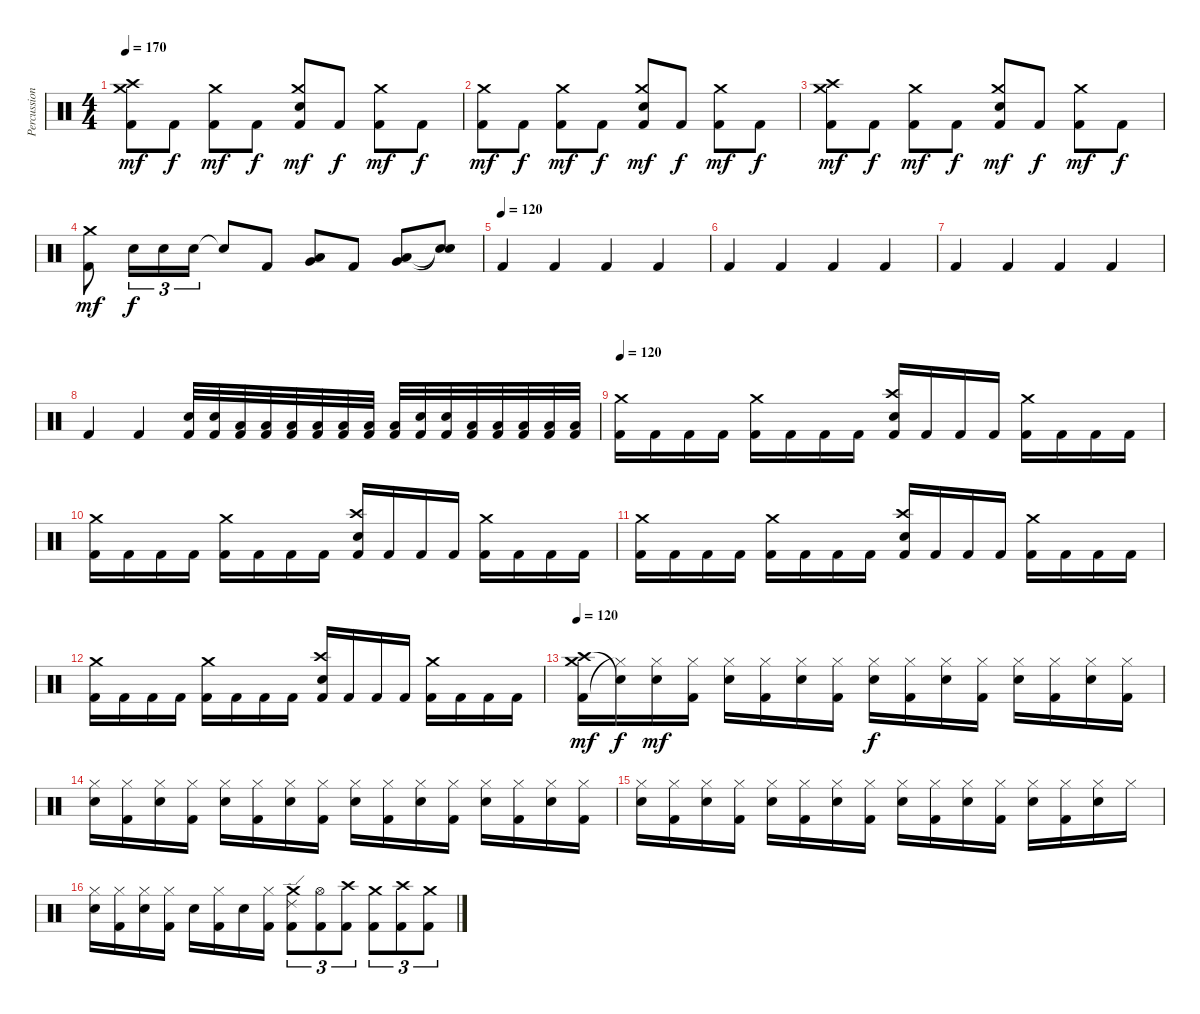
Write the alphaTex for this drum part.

\track ("Percussions" "Percussion") {instrument percussion}
\staff {score}
\articulation defaults
\ts (4 4)
\tempo 170
\clef neutral
\ks c
("Kick (hit) 2" "Crash high (hit)" "Crash medium (hit)").8{dy mf} "Kick (hit) 2".8{dy f} ("Kick (hit) 2" "Crash medium (hit)").8{dy mf} "Kick (hit) 2".8{dy f} ("Kick (hit) 2" "Snare (hit) 2" "Crash medium (hit)").8{dy mf} "Kick (hit) 2".8{dy f} ("Kick (hit) 2" "Crash medium (hit)").8{dy mf} "Kick (hit) 2".8{dy f} |
("Kick (hit) 2" "Crash medium (hit)").8{dy mf} "Kick (hit) 2".8{dy f} ("Kick (hit) 2" "Crash medium (hit)").8{dy mf} "Kick (hit) 2".8{dy f} ("Kick (hit) 2" "Snare (hit) 2" "Crash medium (hit)").8{dy mf} "Kick (hit) 2".8{dy f} ("Kick (hit) 2" "Crash medium (hit)").8{dy mf} "Kick (hit) 2".8{dy f} |
("Kick (hit) 2" "Crash high (hit)" "Crash medium (hit)").8{dy mf} "Kick (hit) 2".8{dy f} ("Kick (hit) 2" "Crash medium (hit)").8{dy mf} "Kick (hit) 2".8{dy f} ("Kick (hit) 2" "Snare (hit) 2" "Crash medium (hit)").8{dy mf} "Kick (hit) 2".8{dy f} ("Kick (hit) 2" "Crash medium (hit)").8{dy mf} "Kick (hit) 2".8{dy f} |
("Kick (hit) 2" "Crash medium (hit)").8{dy mf} "Snare (hit) 2".16{tu (3 2) dy f} "Snare (hit) 2".16{tu (3 2)} "Snare (hit) 2".16{tu (3 2)} "Snare (hit)"{t}.8 "Kick (hit) 2".8 ("Low Tom (hit)" "Very Low Tom (hit)").8 "Kick (hit) 2".8 ("Very Low Tom (hit)" "Low Floor Tom (hit)").8 ("Snare (hit)"{t} "Snare (hit)"{t}).8 |
\tempo (120)
"Kick (hit) 2".4 "Kick (hit) 2".4 "Kick (hit) 2".4 "Kick (hit) 2".4 |
"Kick (hit) 2".4 "Kick (hit) 2".4 "Kick (hit) 2".4 "Kick (hit) 2".4 |
"Kick (hit) 2".4 "Kick (hit) 2".4 "Kick (hit) 2".4 "Kick (hit) 2".4 |
"Kick (hit) 2".4 "Kick (hit) 2".4 ("Electric Snare (hit)" "Kick (hit) 2").32 ("Electric Snare (hit)" "Kick (hit) 2").32 ("Low Floor Tom (hit)" "Kick (hit) 2").32 ("Low Tom (hit)" "Kick (hit) 2").32 ("Low Tom (hit)" "Kick (hit) 2").32 ("Low Tom (hit)" "Kick (hit) 2").32 ("Low Tom (hit)" "Kick (hit) 2").32 ("Low Tom (hit)" "Kick (hit) 2").32 ("Low Tom (hit)" "Kick (hit) 2").32 ("Electric Snare (hit)" "Kick (hit) 2").32 ("Electric Snare (hit)" "Kick (hit) 2").32 ("Low Floor Tom (hit)" "Kick (hit) 2").32 ("Low Tom (hit)" "Kick (hit) 2").32 ("Low Tom (hit)" "Kick (hit) 2").32 ("Low Tom (hit)" "Kick (hit) 2").32 ("Low Tom (hit)" "Kick (hit) 2").32 |
\tempo 120
("Crash medium (hit)" "Kick (hit) 2").16 "Kick (hit) 2".16 "Kick (hit) 2".16 "Kick (hit) 2".16 ("Crash medium (hit)" "Kick (hit) 2").16 "Kick (hit) 2".16 "Kick (hit) 2".16 "Kick (hit) 2".16 ("Crash high (hit)" "Electric Snare (hit)" "Kick (hit) 2").16 "Kick (hit) 2".16 "Kick (hit) 2".16 "Kick (hit) 2".16 ("Crash medium (hit)" "Kick (hit) 2").16 "Kick (hit) 2".16 "Kick (hit) 2".16 "Kick (hit) 2".16 |
("Crash medium (hit)" "Kick (hit) 2").16 "Kick (hit) 2".16 "Kick (hit) 2".16 "Kick (hit) 2".16 ("Crash medium (hit)" "Kick (hit) 2").16 "Kick (hit) 2".16 "Kick (hit) 2".16 "Kick (hit) 2".16 ("Crash high (hit)" "Electric Snare (hit)" "Kick (hit) 2").16 "Kick (hit) 2".16 "Kick (hit) 2".16 "Kick (hit) 2".16 ("Crash medium (hit)" "Kick (hit) 2").16 "Kick (hit) 2".16 "Kick (hit) 2".16 "Kick (hit) 2".16 |
("Crash medium (hit)" "Kick (hit) 2").16 "Kick (hit) 2".16 "Kick (hit) 2".16 "Kick (hit) 2".16 ("Crash medium (hit)" "Kick (hit) 2").16 "Kick (hit) 2".16 "Kick (hit) 2".16 "Kick (hit) 2".16 ("Crash high (hit)" "Electric Snare (hit)" "Kick (hit) 2").16 "Kick (hit) 2".16 "Kick (hit) 2".16 "Kick (hit) 2".16 ("Crash medium (hit)" "Kick (hit) 2").16 "Kick (hit) 2".16 "Kick (hit) 2".16 "Kick (hit) 2".16 |
("Crash medium (hit)" "Kick (hit) 2").16 "Kick (hit) 2".16 "Kick (hit) 2".16 "Kick (hit) 2".16 ("Crash medium (hit)" "Kick (hit) 2").16 "Kick (hit) 2".16 "Kick (hit) 2".16 "Kick (hit) 2".16 ("Crash high (hit)" "Electric Snare (hit)" "Kick (hit) 2").16 "Kick (hit) 2".16 "Kick (hit) 2".16 "Kick (hit) 2".16 ("Crash medium (hit)" "Kick (hit) 2").16 "Kick (hit) 2".16 "Kick (hit) 2".16 "Kick (hit) 2".16 |
\tempo 120
("Kick (hit) 2" "Crash high (hit)" "Crash medium (hit)").16{dy mf} ("Hi-Hat (closed)"{t} "Snare (hit)"{t}).16{dy f} ("Snare (hit) 2" "Hi-Hat (closed)").16{dy mf} ("Kick (hit) 2" "Hi-Hat (closed)").16 ("Snare (hit) 2" "Hi-Hat (closed)").16 ("Kick (hit) 2" "Hi-Hat (closed)").16 ("Snare (hit) 2" "Hi-Hat (closed)").16 ("Kick (hit) 2" "Hi-Hat (closed)").16 ("Snare (hit) 2" "Hi-Hat (closed)").16{dy f} ("Kick (hit) 2" "Hi-Hat (closed)").16 ("Snare (hit) 2" "Hi-Hat (closed)").16 ("Kick (hit) 2" "Hi-Hat (closed)").16 ("Snare (hit) 2" "Hi-Hat (closed)").16 ("Kick (hit) 2" "Hi-Hat (closed)").16 ("Snare (hit) 2" "Hi-Hat (closed)").16 ("Kick (hit) 2" "Hi-Hat (closed)").16 |
("Snare (hit) 2" "Hi-Hat (closed)").16 ("Kick (hit) 2" "Hi-Hat (closed)").16 ("Snare (hit) 2" "Hi-Hat (closed)").16 ("Kick (hit) 2" "Hi-Hat (closed)").16 ("Snare (hit) 2" "Hi-Hat (closed)").16 ("Kick (hit) 2" "Hi-Hat (closed)").16 ("Snare (hit) 2" "Hi-Hat (closed)").16 ("Kick (hit) 2" "Hi-Hat (closed)").16 ("Snare (hit) 2" "Hi-Hat (closed)").16 ("Kick (hit) 2" "Hi-Hat (closed)").16 ("Snare (hit) 2" "Hi-Hat (closed)").16 ("Kick (hit) 2" "Hi-Hat (closed)").16 ("Snare (hit) 2" "Hi-Hat (closed)").16 ("Kick (hit) 2" "Hi-Hat (closed)").16 ("Snare (hit) 2" "Hi-Hat (closed)").16 ("Kick (hit) 2" "Hi-Hat (closed)").16 |
("Snare (hit) 2" "Hi-Hat (closed)").16 ("Kick (hit) 2" "Hi-Hat (closed)").16 ("Snare (hit) 2" "Hi-Hat (closed)").16 ("Kick (hit) 2" "Hi-Hat (closed)").16 ("Snare (hit) 2" "Hi-Hat (closed)").16 ("Kick (hit) 2" "Hi-Hat (closed)").16 ("Snare (hit) 2" "Hi-Hat (closed)").16 ("Kick (hit) 2" "Hi-Hat (closed)").16 ("Snare (hit) 2" "Hi-Hat (closed)").16 ("Kick (hit) 2" "Hi-Hat (closed)").16 ("Snare (hit) 2" "Hi-Hat (closed)").16 ("Kick (hit) 2" "Hi-Hat (closed)").16 ("Snare (hit) 2" "Hi-Hat (closed)").16 ("Kick (hit) 2" "Hi-Hat (closed)").16 ("Snare (hit) 2" "Hi-Hat (closed)").16 "Hi-Hat (closed)".16 |
("Snare (hit) 2" "Hi-Hat (closed)").16 ("Kick (hit) 2" "Hi-Hat (closed)").16 ("Snare (hit) 2" "Hi-Hat (closed)").16 ("Kick (hit) 2" "Hi-Hat (closed)").16 "Snare (hit) 2".16 ("Kick (hit) 2" "Hi-Hat (closed)").16 "Snare (hit) 2".16 ("Kick (hit) 2" "Hi-Hat (closed)").16 ("Kick (hit) 2" "Crash medium (hit)" "Ride (edge) 2").8{tu (3 2)} ("Kick (hit) 2" "Hi-Hat (open)").8{tu (3 2)} ("Kick (hit) 2" "Crash high (hit)").8{tu (3 2)} ("Kick (hit) 2" "Crash medium (hit)").8{tu (3 2)} ("Kick (hit) 2" "Crash high (hit)").8{tu (3 2)} ("Kick (hit) 2" "Crash medium (hit)").8{tu (3 2)}
